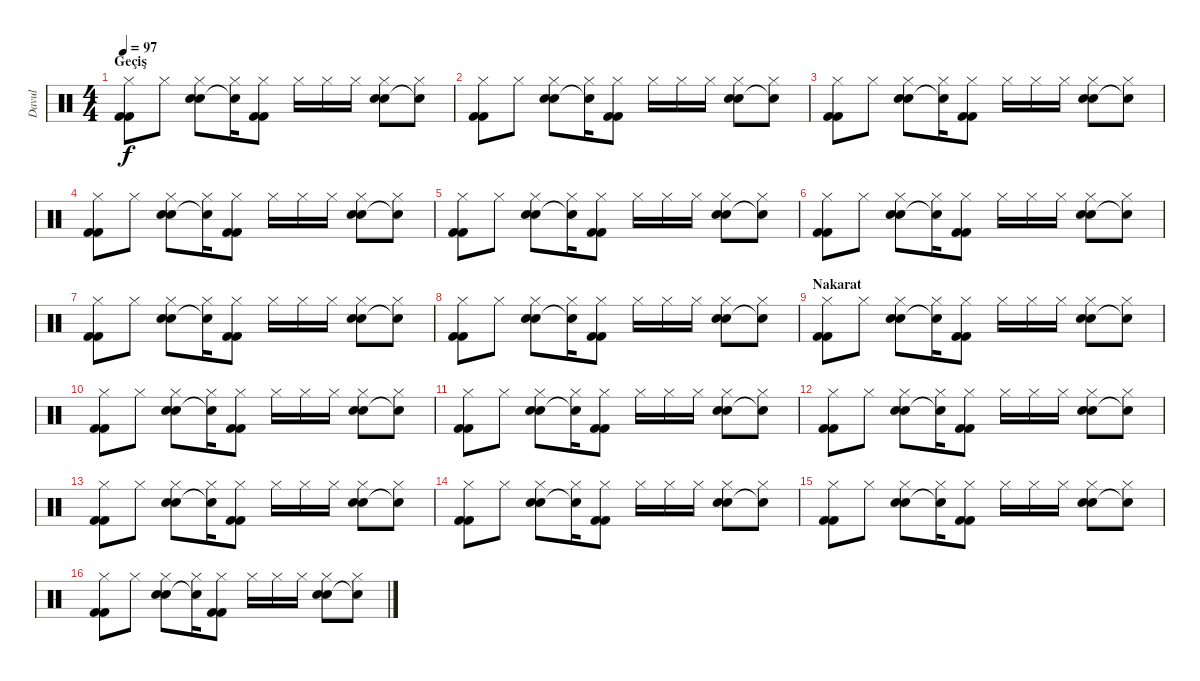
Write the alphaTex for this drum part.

\track ("Davul" "Davul") {instrument percussion}
\staff {score}
\articulation defaults
\ts (4 4)
\section ("" "Geçiş")
\tempo 97
\clef neutral
\ks c
("Hi-Hat (closed)" "Kick (hit) 2" "Kick (hit) 2").8{dy f} "Hi-Hat (closed)".8 ("Hi-Hat (closed)" "Snare (hit) 2" "Snare (hit) 2").8 ("Hi-Hat (closed)" "Snare (hit)"{t}).16 ("Hi-Hat (closed)" "Kick (hit) 2" "Kick (hit) 2").8 "Hi-Hat (closed)".16 "Hi-Hat (closed)".16 "Hi-Hat (closed)".16 ("Hi-Hat (closed)" "Snare (hit) 2" "Snare (hit) 2").8 ("Hi-Hat (closed)" "Snare (hit)"{t}).8 |
("Hi-Hat (closed)" "Kick (hit) 2" "Kick (hit) 2").8 "Hi-Hat (closed)".8 ("Hi-Hat (closed)" "Snare (hit) 2" "Snare (hit) 2").8 ("Hi-Hat (closed)" "Snare (hit)"{t}).16 ("Hi-Hat (closed)" "Kick (hit) 2" "Kick (hit) 2").8 "Hi-Hat (closed)".16 "Hi-Hat (closed)".16 "Hi-Hat (closed)".16 ("Hi-Hat (closed)" "Snare (hit) 2" "Snare (hit) 2").8 ("Hi-Hat (closed)" "Snare (hit)"{t}).8 |
("Hi-Hat (closed)" "Kick (hit) 2" "Kick (hit) 2").8 "Hi-Hat (closed)".8 ("Hi-Hat (closed)" "Snare (hit) 2" "Snare (hit) 2").8 ("Hi-Hat (closed)" "Snare (hit)"{t}).16 ("Hi-Hat (closed)" "Kick (hit) 2" "Kick (hit) 2").8 "Hi-Hat (closed)".16 "Hi-Hat (closed)".16 "Hi-Hat (closed)".16 ("Hi-Hat (closed)" "Snare (hit) 2" "Snare (hit) 2").8 ("Hi-Hat (closed)" "Snare (hit)"{t}).8 |
("Hi-Hat (closed)" "Kick (hit) 2" "Kick (hit) 2").8 "Hi-Hat (closed)".8 ("Hi-Hat (closed)" "Snare (hit) 2" "Snare (hit) 2").8 ("Hi-Hat (closed)" "Snare (hit)"{t}).16 ("Hi-Hat (closed)" "Kick (hit) 2" "Kick (hit) 2").8 "Hi-Hat (closed)".16 "Hi-Hat (closed)".16 "Hi-Hat (closed)".16 ("Hi-Hat (closed)" "Snare (hit) 2" "Snare (hit) 2").8 ("Hi-Hat (closed)" "Snare (hit)"{t}).8 |
("Hi-Hat (closed)" "Kick (hit) 2" "Kick (hit) 2").8 "Hi-Hat (closed)".8 ("Hi-Hat (closed)" "Snare (hit) 2" "Snare (hit) 2").8 ("Hi-Hat (closed)" "Snare (hit)"{t}).16 ("Hi-Hat (closed)" "Kick (hit) 2" "Kick (hit) 2").8 "Hi-Hat (closed)".16 "Hi-Hat (closed)".16 "Hi-Hat (closed)".16 ("Hi-Hat (closed)" "Snare (hit) 2" "Snare (hit) 2").8 ("Hi-Hat (closed)" "Snare (hit)"{t}).8 |
("Hi-Hat (closed)" "Kick (hit) 2" "Kick (hit) 2").8 "Hi-Hat (closed)".8 ("Hi-Hat (closed)" "Snare (hit) 2" "Snare (hit) 2").8 ("Hi-Hat (closed)" "Snare (hit)"{t}).16 ("Hi-Hat (closed)" "Kick (hit) 2" "Kick (hit) 2").8 "Hi-Hat (closed)".16 "Hi-Hat (closed)".16 "Hi-Hat (closed)".16 ("Hi-Hat (closed)" "Snare (hit) 2" "Snare (hit) 2").8 ("Hi-Hat (closed)" "Snare (hit)"{t}).8 |
("Hi-Hat (closed)" "Kick (hit) 2" "Kick (hit) 2").8 "Hi-Hat (closed)".8 ("Hi-Hat (closed)" "Snare (hit) 2" "Snare (hit) 2").8 ("Hi-Hat (closed)" "Snare (hit)"{t}).16 ("Hi-Hat (closed)" "Kick (hit) 2" "Kick (hit) 2").8 "Hi-Hat (closed)".16 "Hi-Hat (closed)".16 "Hi-Hat (closed)".16 ("Hi-Hat (closed)" "Snare (hit) 2" "Snare (hit) 2").8 ("Hi-Hat (closed)" "Snare (hit)"{t}).8 |
("Hi-Hat (closed)" "Kick (hit) 2" "Kick (hit) 2").8 "Hi-Hat (closed)".8 ("Hi-Hat (closed)" "Snare (hit) 2" "Snare (hit) 2").8 ("Hi-Hat (closed)" "Snare (hit)"{t}).16 ("Hi-Hat (closed)" "Kick (hit) 2" "Kick (hit) 2").8 "Hi-Hat (closed)".16 "Hi-Hat (closed)".16 "Hi-Hat (closed)".16 ("Hi-Hat (closed)" "Snare (hit) 2" "Snare (hit) 2").8 ("Hi-Hat (closed)" "Snare (hit)"{t}).8 |
\section ("" "Nakarat")
("Hi-Hat (closed)" "Kick (hit) 2" "Kick (hit) 2").8 "Hi-Hat (closed)".8 ("Hi-Hat (closed)" "Snare (hit) 2" "Snare (hit) 2").8 ("Hi-Hat (closed)" "Snare (hit)"{t}).16 ("Hi-Hat (closed)" "Kick (hit) 2" "Kick (hit) 2").8 "Hi-Hat (closed)".16 "Hi-Hat (closed)".16 "Hi-Hat (closed)".16 ("Hi-Hat (closed)" "Snare (hit) 2" "Snare (hit) 2").8 ("Hi-Hat (closed)" "Snare (hit)"{t}).8 |
("Hi-Hat (closed)" "Kick (hit) 2" "Kick (hit) 2").8 "Hi-Hat (closed)".8 ("Hi-Hat (closed)" "Snare (hit) 2" "Snare (hit) 2").8 ("Hi-Hat (closed)" "Snare (hit)"{t}).16 ("Hi-Hat (closed)" "Kick (hit) 2" "Kick (hit) 2").8 "Hi-Hat (closed)".16 "Hi-Hat (closed)".16 "Hi-Hat (closed)".16 ("Hi-Hat (closed)" "Snare (hit) 2" "Snare (hit) 2").8 ("Hi-Hat (closed)" "Snare (hit)"{t}).8 |
("Hi-Hat (closed)" "Kick (hit) 2" "Kick (hit) 2").8 "Hi-Hat (closed)".8 ("Hi-Hat (closed)" "Snare (hit) 2" "Snare (hit) 2").8 ("Hi-Hat (closed)" "Snare (hit)"{t}).16 ("Hi-Hat (closed)" "Kick (hit) 2" "Kick (hit) 2").8 "Hi-Hat (closed)".16 "Hi-Hat (closed)".16 "Hi-Hat (closed)".16 ("Hi-Hat (closed)" "Snare (hit) 2" "Snare (hit) 2").8 ("Hi-Hat (closed)" "Snare (hit)"{t}).8 |
("Hi-Hat (closed)" "Kick (hit) 2" "Kick (hit) 2").8 "Hi-Hat (closed)".8 ("Hi-Hat (closed)" "Snare (hit) 2" "Snare (hit) 2").8 ("Hi-Hat (closed)" "Snare (hit)"{t}).16 ("Hi-Hat (closed)" "Kick (hit) 2" "Kick (hit) 2").8 "Hi-Hat (closed)".16 "Hi-Hat (closed)".16 "Hi-Hat (closed)".16 ("Hi-Hat (closed)" "Snare (hit) 2" "Snare (hit) 2").8 ("Hi-Hat (closed)" "Snare (hit)"{t}).8 |
("Hi-Hat (closed)" "Kick (hit) 2" "Kick (hit) 2").8 "Hi-Hat (closed)".8 ("Hi-Hat (closed)" "Snare (hit) 2" "Snare (hit) 2").8 ("Hi-Hat (closed)" "Snare (hit)"{t}).16 ("Hi-Hat (closed)" "Kick (hit) 2" "Kick (hit) 2").8 "Hi-Hat (closed)".16 "Hi-Hat (closed)".16 "Hi-Hat (closed)".16 ("Hi-Hat (closed)" "Snare (hit) 2" "Snare (hit) 2").8 ("Hi-Hat (closed)" "Snare (hit)"{t}).8 |
("Hi-Hat (closed)" "Kick (hit) 2" "Kick (hit) 2").8 "Hi-Hat (closed)".8 ("Hi-Hat (closed)" "Snare (hit) 2" "Snare (hit) 2").8 ("Hi-Hat (closed)" "Snare (hit)"{t}).16 ("Hi-Hat (closed)" "Kick (hit) 2" "Kick (hit) 2").8 "Hi-Hat (closed)".16 "Hi-Hat (closed)".16 "Hi-Hat (closed)".16 ("Hi-Hat (closed)" "Snare (hit) 2" "Snare (hit) 2").8 ("Hi-Hat (closed)" "Snare (hit)"{t}).8 |
("Hi-Hat (closed)" "Kick (hit) 2" "Kick (hit) 2").8 "Hi-Hat (closed)".8 ("Hi-Hat (closed)" "Snare (hit) 2" "Snare (hit) 2").8 ("Hi-Hat (closed)" "Snare (hit)"{t}).16 ("Hi-Hat (closed)" "Kick (hit) 2" "Kick (hit) 2").8 "Hi-Hat (closed)".16 "Hi-Hat (closed)".16 "Hi-Hat (closed)".16 ("Hi-Hat (closed)" "Snare (hit) 2" "Snare (hit) 2").8 ("Hi-Hat (closed)" "Snare (hit)"{t}).8 |
("Hi-Hat (closed)" "Kick (hit) 2" "Kick (hit) 2").8 "Hi-Hat (closed)".8 ("Hi-Hat (closed)" "Snare (hit) 2" "Snare (hit) 2").8 ("Hi-Hat (closed)" "Snare (hit)"{t}).16 ("Hi-Hat (closed)" "Kick (hit) 2" "Kick (hit) 2").8 "Hi-Hat (closed)".16 "Hi-Hat (closed)".16 "Hi-Hat (closed)".16 ("Hi-Hat (closed)" "Snare (hit) 2" "Snare (hit) 2").8 ("Hi-Hat (closed)" "Snare (hit)"{t}).8
